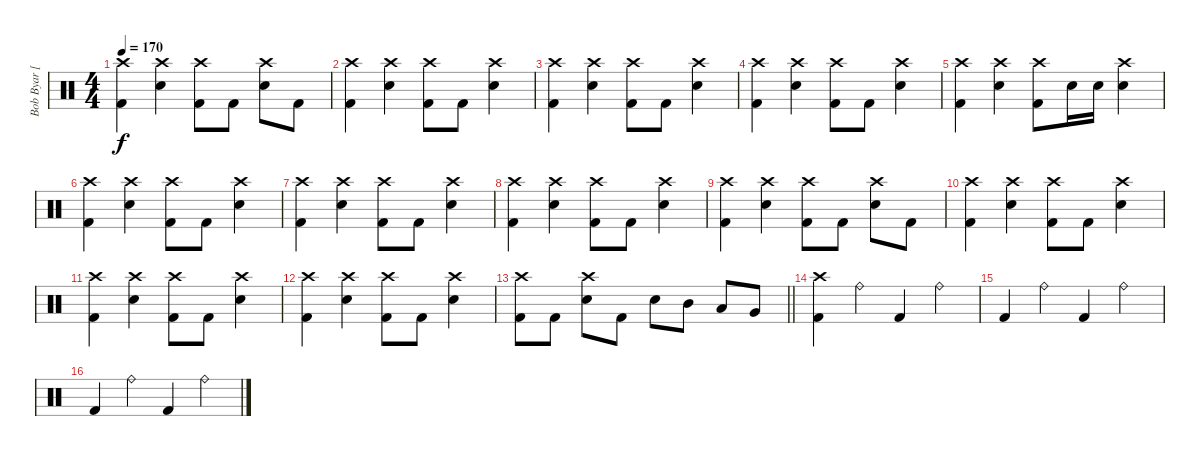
\track ("Bob Byar [Drums]" "Bob Byar [") {instrument percussion}
\staff {score}
\articulation defaults
\ts (4 4)
\tempo 170
\clef neutral
\ks c
("Crash high (hit)" "Kick (hit) 2").4{dy f} ("Crash high (hit)" "Electric Snare (hit)").4 ("Crash high (hit)" "Kick (hit) 2").8 "Kick (hit) 2".8 ("Crash high (hit)" "Electric Snare (hit)").8 "Kick (hit) 2".8 |
("Crash high (hit)" "Kick (hit) 2").4 ("Crash high (hit)" "Electric Snare (hit)").4 ("Crash high (hit)" "Kick (hit) 2").8 "Kick (hit) 2".8 ("Crash high (hit)" "Electric Snare (hit)").4 |
("Crash high (hit)" "Kick (hit) 2").4 ("Crash high (hit)" "Electric Snare (hit)").4 ("Crash high (hit)" "Kick (hit) 2").8 "Kick (hit) 2".8 ("Crash high (hit)" "Electric Snare (hit)").4 |
("Crash high (hit)" "Kick (hit) 2").4 ("Crash high (hit)" "Electric Snare (hit)").4 ("Crash high (hit)" "Kick (hit) 2").8 "Kick (hit) 2".8 ("Crash high (hit)" "Electric Snare (hit)").4 |
("Crash high (hit)" "Kick (hit) 2").4 ("Crash high (hit)" "Electric Snare (hit)").4 ("Crash high (hit)" "Kick (hit) 2").8 "Electric Snare (hit)".16 "Electric Snare (hit)".16 ("Crash high (hit)" "Electric Snare (hit)").4 |
("Crash high (hit)" "Kick (hit) 2").4 ("Crash high (hit)" "Electric Snare (hit)").4 ("Crash high (hit)" "Kick (hit) 2").8 "Kick (hit) 2".8 ("Crash high (hit)" "Electric Snare (hit)").4 |
("Crash high (hit)" "Kick (hit) 2").4 ("Crash high (hit)" "Electric Snare (hit)").4 ("Crash high (hit)" "Kick (hit) 2").8 "Kick (hit) 2".8 ("Crash high (hit)" "Electric Snare (hit)").4 |
("Crash high (hit)" "Kick (hit) 2").4 ("Crash high (hit)" "Electric Snare (hit)").4 ("Crash high (hit)" "Kick (hit) 2").8 "Kick (hit) 2".8 ("Crash high (hit)" "Electric Snare (hit)").4 |
("Crash high (hit)" "Kick (hit) 2").4 ("Crash high (hit)" "Electric Snare (hit)").4 ("Crash high (hit)" "Kick (hit) 2").8 "Kick (hit) 2".8 ("Crash high (hit)" "Electric Snare (hit)").8 "Kick (hit) 2".8 |
("Crash high (hit)" "Kick (hit) 2").4 ("Crash high (hit)" "Electric Snare (hit)").4 ("Crash high (hit)" "Kick (hit) 2").8 "Kick (hit) 2".8 ("Crash high (hit)" "Electric Snare (hit)").4 |
("Crash high (hit)" "Kick (hit) 2").4 ("Crash high (hit)" "Electric Snare (hit)").4 ("Crash high (hit)" "Kick (hit) 2").8 "Kick (hit) 2".8 ("Crash high (hit)" "Electric Snare (hit)").4 |
("Crash high (hit)" "Kick (hit) 2").4 ("Crash high (hit)" "Electric Snare (hit)").4 ("Crash high (hit)" "Kick (hit) 2").8 "Kick (hit) 2".8 ("Crash high (hit)" "Electric Snare (hit)").4 |
\barLineRight lightlight
("Crash high (hit)" "Kick (hit) 2").8 "Kick (hit) 2".8 ("Crash high (hit)" "Electric Snare (hit)").8 "Kick (hit) 2".8 "Electric Snare (hit)".8 "Mid Tom (hit)".8 "Low Tom (hit)".8 "Very Low Tom (hit)".8 |
("Crash high (hit)" "Kick (hit) 2").4 "Ride (bell)".4 "Kick (hit) 2".4 "Ride (bell)".4 |
"Kick (hit) 2".4 "Ride (bell)".4 "Kick (hit) 2".4 "Ride (bell)".4 |
"Kick (hit) 2".4 "Ride (bell)".4 "Kick (hit) 2".4 "Ride (bell)".4
